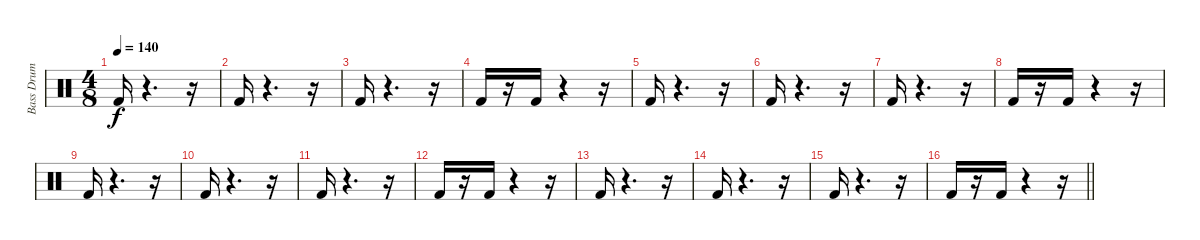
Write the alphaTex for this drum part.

\track ("Bass Drum" "Bass Drum") {instrument percussion}
\staff {score}
\articulation defaults
\ts (4 8)
\tempo 140
\clef neutral
\ks c "Kick (hit) 2".16{dy f}
r.4{d} r.16 |
"Kick (hit) 2".16 r.4{d} r.16 |
"Kick (hit) 2".16 r.4{d} r.16 |
"Kick (hit) 2".16 r.16 "Kick (hit) 2".16 r.4 r.16 |
"Kick (hit) 2".16 r.4{d} r.16 |
"Kick (hit) 2".16 r.4{d} r.16 |
"Kick (hit) 2".16 r.4{d} r.16 |
"Kick (hit) 2".16 r.16 "Kick (hit) 2".16 r.4 r.16 |
"Kick (hit) 2".16 r.4{d} r.16 |
"Kick (hit) 2".16 r.4{d} r.16 |
"Kick (hit) 2".16 r.4{d} r.16 |
"Kick (hit) 2".16 r.16 "Kick (hit) 2".16 r.4 r.16 |
"Kick (hit) 2".16 r.4{d} r.16 |
"Kick (hit) 2".16 r.4{d} r.16 |
"Kick (hit) 2".16 r.4{d} r.16 |
\barLineRight lightlight "Kick (hit) 2".16
r.16 "Kick (hit) 2".16 r.4 r.16
